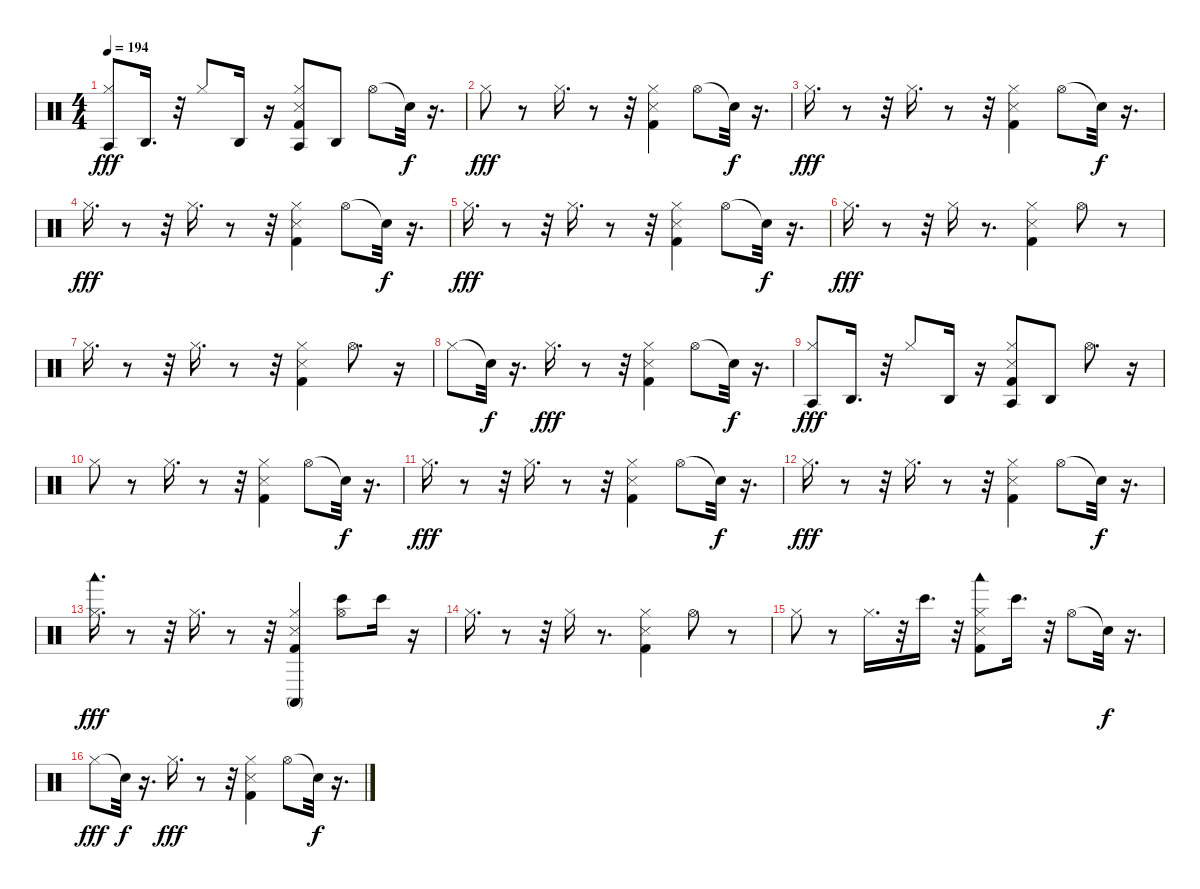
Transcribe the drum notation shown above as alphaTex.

\track "" {instrument percussion}
\staff {score}
\articulation defaults
\ts (4 4)
\tempo 194
\clef neutral
\ks c
("Hi-Hat (closed)" "Agogo tow (hit)").8{dy fff} "Agogo high (hit)".16{d} r.32 "Hi-Hat (closed)".8 "Agogo high (hit)".16 r.16 ("Agogo tow (hit)" "Hi-Hat (closed)" "Snare (side stick) 3" "Kick (hit) 2").8 "Agogo high (hit)".8 "Hi-Hat (open)".8 "Snare (hit)"{t}.32{dy f} r.16{d} |
"Hi-Hat (closed)".8{dy fff} r.8 "Hi-Hat (closed)".16{d} r.8 r.32 ("Snare (side stick) 3" "Kick (hit) 2" "Hi-Hat (closed)").4 "Hi-Hat (open)".8 "Snare (hit)"{t}.32{dy f} r.16{d} |
"Hi-Hat (closed)".16{d dy fff} r.8 r.32 "Hi-Hat (closed)".16{d} r.8 r.32 ("Snare (side stick) 3" "Kick (hit) 2" "Hi-Hat (closed)").4 "Hi-Hat (open)".8 "Snare (hit)"{t}.32{dy f} r.16{d} |
"Hi-Hat (closed)".16{d dy fff} r.8 r.32 "Hi-Hat (closed)".16{d} r.8 r.32 ("Kick (hit) 2" "Snare (side stick) 3" "Hi-Hat (closed)").4 "Hi-Hat (open)".8 "Snare (hit)"{t}.32{dy f} r.16{d} |
"Hi-Hat (closed)".16{d dy fff} r.8 r.32 "Hi-Hat (closed)".16{d} r.8 r.32 ("Kick (hit) 2" "Hi-Hat (closed)" "Snare (side stick) 3").4 "Hi-Hat (open)".8 "Snare (hit)"{t}.32{dy f} r.16{d} |
"Hi-Hat (closed)".16{d dy fff} r.8 r.32 "Hi-Hat (closed)".16 r.8{d} ("Kick (hit) 2" "Snare (side stick) 3" "Hi-Hat (closed)").4 "Hi-Hat (open)".8 r.8 |
"Hi-Hat (closed)".16{d} r.8 r.32 "Hi-Hat (closed)".16{d} r.8 r.32 ("Kick (hit) 2" "Snare (side stick) 3" "Hi-Hat (closed)").4 "Hi-Hat (open)".8{d} r.16 |
"Hi-Hat (closed)".8 "Snare (hit)"{t}.32{dy f} r.16{d} "Hi-Hat (closed)".16{d dy fff} r.8 r.32 ("Kick (hit) 2" "Snare (side stick) 3" "Hi-Hat (closed)").4 "Hi-Hat (open)".8 "Snare (hit)"{t}.32{dy f} r.16{d} |
("Hi-Hat (closed)" "Agogo tow (hit)").8{dy fff} "Agogo high (hit)".16{d} r.32 "Hi-Hat (closed)".8 "Agogo high (hit)".16 r.16 ("Kick (hit) 2" "Agogo tow (hit)" "Hi-Hat (closed)" "Snare (side stick) 3").8 "Agogo high (hit)".8 "Hi-Hat (open)".8{d} r.16 |
"Hi-Hat (closed)".8 r.8 "Hi-Hat (closed)".16{d} r.8 r.32 ("Kick (hit) 2" "Snare (side stick) 3" "Hi-Hat (closed)").4 "Hi-Hat (open)".8 "Snare (hit)"{t}.32{dy f} r.16{d} |
"Hi-Hat (closed)".16{d dy fff} r.8 r.32 "Hi-Hat (closed)".16{d} r.8 r.32 ("Kick (hit) 2" "Snare (side stick) 3" "Hi-Hat (closed)").4 "Hi-Hat (open)".8 "Snare (hit)"{t}.32{dy f} r.16{d} |
"Hi-Hat (closed)".16{d dy fff} r.8 r.32 "Hi-Hat (closed)".16{d} r.8 r.32 ("Kick (hit) 2" "Snare (side stick) 3" "Hi-Hat (closed)").4 "Hi-Hat (open)".8 "Snare (hit)"{t}.32{dy f} r.16{d} |
("Hi-Hat (closed)" "Woodblock low (hit)").16{d dy fff} r.8 r.32 "Hi-Hat (closed)".16{d} r.8 r.32 ("Kick (hit) 2" "Hi-Hat (closed)" "Snare (side stick) 3" "Conga high (mute)").4 ("Hi-Hat (open)" "Bongo High (hit)").8 "Bongo High (hit)".16 r.16 |
"Hi-Hat (closed)".16{d} r.8 r.32 "Hi-Hat (closed)".16 r.8{d} ("Snare (side stick) 3" "Kick (hit) 2" "Hi-Hat (closed)").4 "Hi-Hat (open)".8 r.8 |
"Hi-Hat (closed)".8 r.8 "Hi-Hat (closed)".16{d} r.32 "Bongo High (hit)".16{d} r.32 ("Snare (side stick) 3" "Kick (hit) 2" "Hi-Hat (closed)" "Woodblock low (hit)").8 "Bongo High (hit)".16{d} r.32 "Hi-Hat (open)".8 "Snare (hit)"{t}.32{dy f} r.16{d} |
"Hi-Hat (closed)".8{dy fff} "Snare (hit)"{t}.32{dy f} r.16{d} "Hi-Hat (closed)".16{d dy fff} r.8 r.32 ("Snare (side stick) 3" "Kick (hit) 2" "Hi-Hat (closed)").4 "Hi-Hat (open)".8 "Snare (hit)"{t}.32{dy f} r.16{d}
